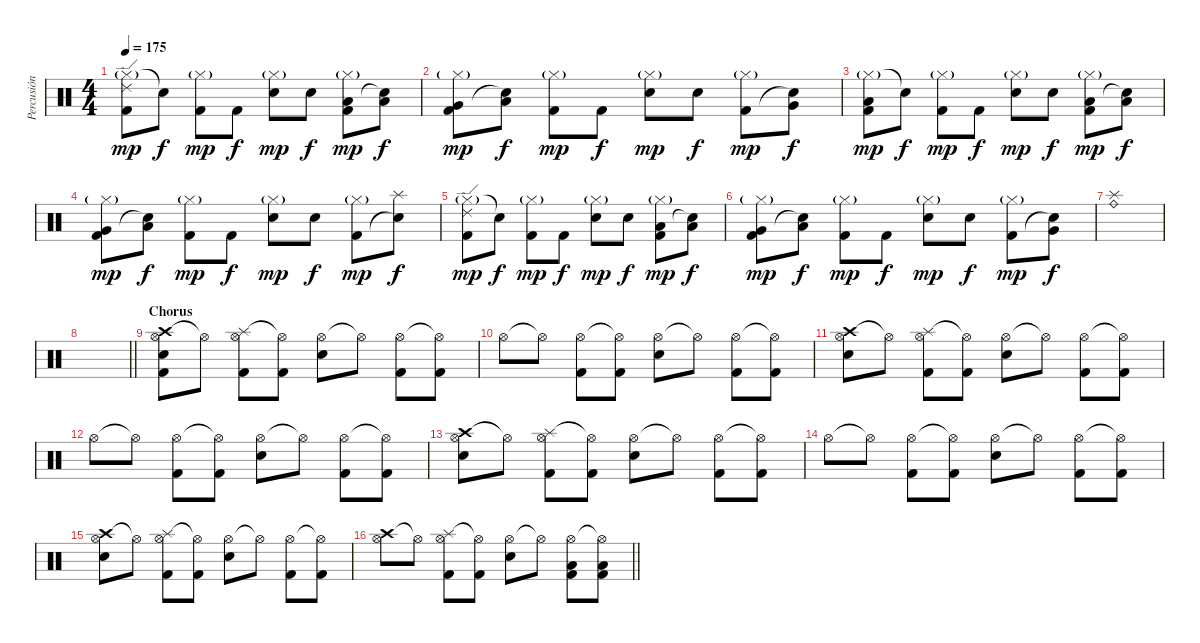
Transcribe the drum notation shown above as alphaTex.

\track ("Percusión" "Percusión") {instrument percussion}
\staff {score}
\articulation defaults
\ts (4 4)
\tempo 175
\clef neutral
\ks c
("Hi-Hat (closed)"{g} "Ride (edge) 2" "Kick (hit) 2").8{dy mp} "Snare (hit)"{t}.8{dy f} ("Hi-Hat (closed)"{g} "Kick (hit) 2").8{dy mp} "Kick (hit) 2".8{dy f} ("Hi-Hat (closed)"{g} "Electric Snare (hit)").8{dy mp} "Electric Snare (hit)".8{dy f} ("Hi-Hat (closed)"{g} "Low Floor Tom (hit)" "Kick (hit) 2").8{dy mp} ("Low Floor Tom (hit)" "Snare (hit)"{t}).8{dy f} |
("Hi-Hat (closed)"{g} "Very Low Tom (hit)" "Kick (hit) 2").8{dy mp} ("Low Floor Tom (hit)" "Snare (hit)"{t}).8{dy f} ("Hi-Hat (closed)"{g} "Kick (hit) 2").8{dy mp} "Kick (hit) 2".8{dy f} ("Hi-Hat (closed)"{g} "Electric Snare (hit)").8{dy mp} "Electric Snare (hit)".8{dy f} ("Hi-Hat (closed)"{g} "Kick (hit) 2").8{dy mp} ("Very Low Tom (hit)" "Snare (hit)"{t}).8{dy f} |
("Hi-Hat (closed)"{g} "Low Floor Tom (hit)" "Kick (hit) 2").8{dy mp} "Snare (hit)"{t}.8{dy f} ("Hi-Hat (closed)"{g} "Kick (hit) 2").8{dy mp} "Kick (hit) 2".8{dy f} ("Hi-Hat (closed)"{g} "Electric Snare (hit)").8{dy mp} "Electric Snare (hit)".8{dy f} ("Hi-Hat (closed)"{g} "Low Floor Tom (hit)" "Kick (hit) 2").8{dy mp} ("Low Floor Tom (hit)" "Snare (hit)"{t}).8{dy f} |
("Hi-Hat (closed)"{g} "Very Low Tom (hit)" "Kick (hit) 2").8{dy mp} ("Low Floor Tom (hit)" "Snare (hit)"{t}).8{dy f} ("Hi-Hat (closed)"{g} "Kick (hit) 2").8{dy mp} "Kick (hit) 2".8{dy f} ("Hi-Hat (closed)"{g} "Electric Snare (hit)").8{dy mp} "Electric Snare (hit)".8{dy f} ("Hi-Hat (closed)"{g} "Kick (hit) 2").8{dy mp} ("Splash (hit)" "Snare (hit)"{t}).8{dy f} |
("Hi-Hat (closed)"{g} "Ride (edge) 2" "Kick (hit) 2").8{dy mp} "Snare (hit)"{t}.8{dy f} ("Hi-Hat (closed)"{g} "Kick (hit) 2").8{dy mp} "Kick (hit) 2".8{dy f} ("Hi-Hat (closed)"{g} "Electric Snare (hit)").8{dy mp} "Electric Snare (hit)".8{dy f} ("Hi-Hat (closed)"{g} "Low Floor Tom (hit)" "Kick (hit) 2").8{dy mp} ("Low Floor Tom (hit)" "Snare (hit)"{t}).8{dy f} |
("Hi-Hat (closed)"{g} "Very Low Tom (hit)" "Kick (hit) 2").8{dy mp} ("Low Floor Tom (hit)" "Snare (hit)"{t}).8{dy f} ("Hi-Hat (closed)"{g} "Kick (hit) 2").8{dy mp} "Kick (hit) 2".8{dy f} ("Hi-Hat (closed)"{g} "Electric Snare (hit)").8{dy mp} "Electric Snare (hit)".8{dy f} ("Hi-Hat (closed)"{g} "Kick (hit) 2").8{dy mp} ("Very Low Tom (hit)" "Snare (hit)"{t}).8{dy f} |
("Splash (hit)" "Ride (bell)").1 |
\barLineRight lightlight
|
\section ("" "Chorus")
("Crash high (hit)" "Hi-Hat (open)" "Electric Snare (hit)" "Kick (hit) 2").8{volume 14} "Hi-Hat (open)"{t}.8 ("Splash (hit)" "Hi-Hat (open)" "Kick (hit) 2").8 ("Hi-Hat (open)"{t} "Kick (hit) 2").8 ("Hi-Hat (open)" "Electric Snare (hit)").8 "Hi-Hat (open)"{t}.8 ("Hi-Hat (open)" "Kick (hit) 2").8 ("Hi-Hat (open)"{t} "Kick (hit) 2").8 |
"Hi-Hat (open)".8 "Hi-Hat (open)"{t}.8 ("Hi-Hat (open)" "Kick (hit) 2").8 ("Hi-Hat (open)"{t} "Kick (hit) 2").8 ("Hi-Hat (open)" "Electric Snare (hit)").8 "Hi-Hat (open)"{t}.8 ("Hi-Hat (open)" "Kick (hit) 2").8 ("Hi-Hat (open)"{t} "Kick (hit) 2").8 |
("Crash high (hit)" "Hi-Hat (open)" "Electric Snare (hit)").8 "Hi-Hat (open)"{t}.8 ("Splash (hit)" "Hi-Hat (open)" "Kick (hit) 2").8 ("Hi-Hat (open)"{t} "Kick (hit) 2").8 ("Hi-Hat (open)" "Electric Snare (hit)").8 "Hi-Hat (open)"{t}.8 ("Hi-Hat (open)" "Kick (hit) 2").8 ("Hi-Hat (open)"{t} "Kick (hit) 2").8 |
"Hi-Hat (open)".8 "Hi-Hat (open)"{t}.8 ("Hi-Hat (open)" "Kick (hit) 2").8 ("Hi-Hat (open)"{t} "Kick (hit) 2").8 ("Hi-Hat (open)" "Electric Snare (hit)").8 "Hi-Hat (open)"{t}.8 ("Hi-Hat (open)" "Kick (hit) 2").8 ("Hi-Hat (open)"{t} "Kick (hit) 2").8 |
("Crash high (hit)" "Hi-Hat (open)" "Electric Snare (hit)").8 "Hi-Hat (open)"{t}.8 ("Splash (hit)" "Hi-Hat (open)" "Kick (hit) 2").8 ("Hi-Hat (open)"{t} "Kick (hit) 2").8 ("Hi-Hat (open)" "Electric Snare (hit)").8 "Hi-Hat (open)"{t}.8 ("Hi-Hat (open)" "Kick (hit) 2").8 ("Hi-Hat (open)"{t} "Kick (hit) 2").8 |
"Hi-Hat (open)".8 "Hi-Hat (open)"{t}.8 ("Hi-Hat (open)" "Kick (hit) 2").8 ("Hi-Hat (open)"{t} "Kick (hit) 2").8 ("Hi-Hat (open)" "Electric Snare (hit)").8 "Hi-Hat (open)"{t}.8 ("Hi-Hat (open)" "Kick (hit) 2").8 ("Hi-Hat (open)"{t} "Kick (hit) 2").8 |
("Crash high (hit)" "Hi-Hat (open)" "Electric Snare (hit)").8 "Hi-Hat (open)"{t}.8 ("Splash (hit)" "Hi-Hat (open)" "Kick (hit) 2").8 ("Hi-Hat (open)"{t} "Kick (hit) 2").8 ("Hi-Hat (open)" "Electric Snare (hit)").8 "Hi-Hat (open)"{t}.8 ("Hi-Hat (open)" "Kick (hit) 2").8 ("Hi-Hat (open)"{t} "Kick (hit) 2").8 |
\barLineRight lightlight
("Crash high (hit)" "Hi-Hat (open)").8 "Hi-Hat (open)"{t}.8 ("Splash (hit)" "Hi-Hat (open)" "Kick (hit) 2").8 ("Hi-Hat (open)"{t} "Kick (hit) 2").8 ("Hi-Hat (open)" "Electric Snare (hit)").8 "Hi-Hat (open)"{t}.8 ("Hi-Hat (open)" "Low Floor Tom (hit)" "Kick (hit) 2").8 ("Hi-Hat (open)"{t} "Low Floor Tom (hit)" "Kick (hit) 2").8
